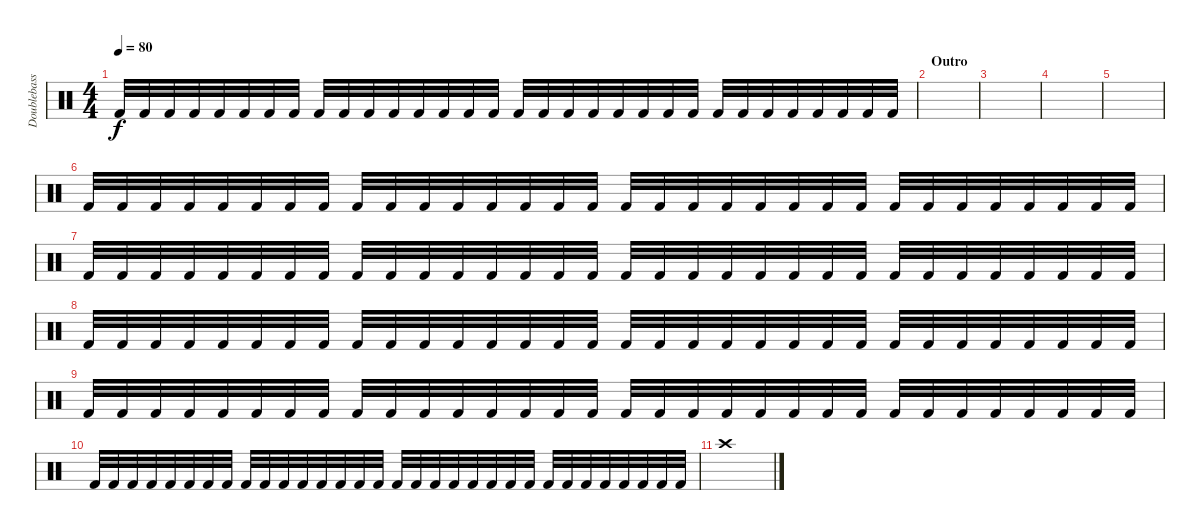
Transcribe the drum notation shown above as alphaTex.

\track ("Doublebass" "Doublebass") {instrument percussion}
\staff {score}
\articulation defaults
\ts (4 4)
\tempo 80
\clef neutral
\ks c "Kick (hit) 2".32{dy f} "Kick (hit) 2".32 "Kick (hit) 2".32 "Kick (hit) 2".32 "Kick (hit) 2".32 "Kick (hit) 2".32 "Kick (hit) 2".32 "Kick (hit) 2".32 "Kick (hit) 2".32 "Kick (hit) 2".32 "Kick (hit) 2".32 "Kick (hit) 2".32 "Kick (hit) 2".32 "Kick (hit) 2".32 "Kick (hit) 2".32 "Kick (hit) 2".32 "Kick (hit) 2".32 "Kick (hit) 2".32 "Kick (hit) 2".32 "Kick (hit) 2".32 "Kick (hit) 2".32 "Kick (hit) 2".32 "Kick (hit) 2".32 "Kick (hit) 2".32 "Kick (hit) 2".32 "Kick (hit) 2".32 "Kick (hit) 2".32 "Kick (hit) 2".32 "Kick (hit) 2".32 "Kick (hit) 2".32 "Kick (hit) 2".32 "Kick (hit) 2".32
|
\section ("" "Outro")
|
|
|
|
"Kick (hit) 2".32 "Kick (hit) 2".32 "Kick (hit) 2".32 "Kick (hit) 2".32 "Kick (hit) 2".32 "Kick (hit) 2".32 "Kick (hit) 2".32 "Kick (hit) 2".32 "Kick (hit) 2".32 "Kick (hit) 2".32 "Kick (hit) 2".32 "Kick (hit) 2".32 "Kick (hit) 2".32 "Kick (hit) 2".32 "Kick (hit) 2".32 "Kick (hit) 2".32 "Kick (hit) 2".32 "Kick (hit) 2".32 "Kick (hit) 2".32 "Kick (hit) 2".32 "Kick (hit) 2".32 "Kick (hit) 2".32 "Kick (hit) 2".32 "Kick (hit) 2".32 "Kick (hit) 2".32 "Kick (hit) 2".32 "Kick (hit) 2".32 "Kick (hit) 2".32 "Kick (hit) 2".32 "Kick (hit) 2".32 "Kick (hit) 2".32 "Kick (hit) 2".32 |
"Kick (hit) 2".32 "Kick (hit) 2".32 "Kick (hit) 2".32 "Kick (hit) 2".32 "Kick (hit) 2".32 "Kick (hit) 2".32 "Kick (hit) 2".32 "Kick (hit) 2".32 "Kick (hit) 2".32 "Kick (hit) 2".32 "Kick (hit) 2".32 "Kick (hit) 2".32 "Kick (hit) 2".32 "Kick (hit) 2".32 "Kick (hit) 2".32 "Kick (hit) 2".32 "Kick (hit) 2".32 "Kick (hit) 2".32 "Kick (hit) 2".32 "Kick (hit) 2".32 "Kick (hit) 2".32 "Kick (hit) 2".32 "Kick (hit) 2".32 "Kick (hit) 2".32 "Kick (hit) 2".32 "Kick (hit) 2".32 "Kick (hit) 2".32 "Kick (hit) 2".32 "Kick (hit) 2".32 "Kick (hit) 2".32 "Kick (hit) 2".32 "Kick (hit) 2".32 |
"Kick (hit) 2".32 "Kick (hit) 2".32 "Kick (hit) 2".32 "Kick (hit) 2".32 "Kick (hit) 2".32 "Kick (hit) 2".32 "Kick (hit) 2".32 "Kick (hit) 2".32 "Kick (hit) 2".32 "Kick (hit) 2".32 "Kick (hit) 2".32 "Kick (hit) 2".32 "Kick (hit) 2".32 "Kick (hit) 2".32 "Kick (hit) 2".32 "Kick (hit) 2".32 "Kick (hit) 2".32 "Kick (hit) 2".32 "Kick (hit) 2".32 "Kick (hit) 2".32 "Kick (hit) 2".32 "Kick (hit) 2".32 "Kick (hit) 2".32 "Kick (hit) 2".32 "Kick (hit) 2".32 "Kick (hit) 2".32 "Kick (hit) 2".32 "Kick (hit) 2".32 "Kick (hit) 2".32 "Kick (hit) 2".32 "Kick (hit) 2".32 "Kick (hit) 2".32 |
"Kick (hit) 2".32 "Kick (hit) 2".32 "Kick (hit) 2".32 "Kick (hit) 2".32 "Kick (hit) 2".32 "Kick (hit) 2".32 "Kick (hit) 2".32 "Kick (hit) 2".32 "Kick (hit) 2".32 "Kick (hit) 2".32 "Kick (hit) 2".32 "Kick (hit) 2".32 "Kick (hit) 2".32 "Kick (hit) 2".32 "Kick (hit) 2".32 "Kick (hit) 2".32 "Kick (hit) 2".32 "Kick (hit) 2".32 "Kick (hit) 2".32 "Kick (hit) 2".32 "Kick (hit) 2".32 "Kick (hit) 2".32 "Kick (hit) 2".32 "Kick (hit) 2".32 "Kick (hit) 2".32 "Kick (hit) 2".32 "Kick (hit) 2".32 "Kick (hit) 2".32 "Kick (hit) 2".32 "Kick (hit) 2".32 "Kick (hit) 2".32 "Kick (hit) 2".32 |
"Kick (hit) 2".32 "Kick (hit) 2".32 "Kick (hit) 2".32 "Kick (hit) 2".32 "Kick (hit) 2".32 "Kick (hit) 2".32 "Kick (hit) 2".32 "Kick (hit) 2".32 "Kick (hit) 2".32 "Kick (hit) 2".32 "Kick (hit) 2".32 "Kick (hit) 2".32 "Kick (hit) 2".32 "Kick (hit) 2".32 "Kick (hit) 2".32 "Kick (hit) 2".32 "Kick (hit) 2".32 "Kick (hit) 2".32 "Kick (hit) 2".32 "Kick (hit) 2".32 "Kick (hit) 2".32 "Kick (hit) 2".32 "Kick (hit) 2".32 "Kick (hit) 2".32 "Kick (hit) 2".32 "Kick (hit) 2".32 "Kick (hit) 2".32 "Kick (hit) 2".32 "Kick (hit) 2".32 "Kick (hit) 2".32 "Kick (hit) 2".32 "Kick (hit) 2".32 |
"Crash high (hit)".1
